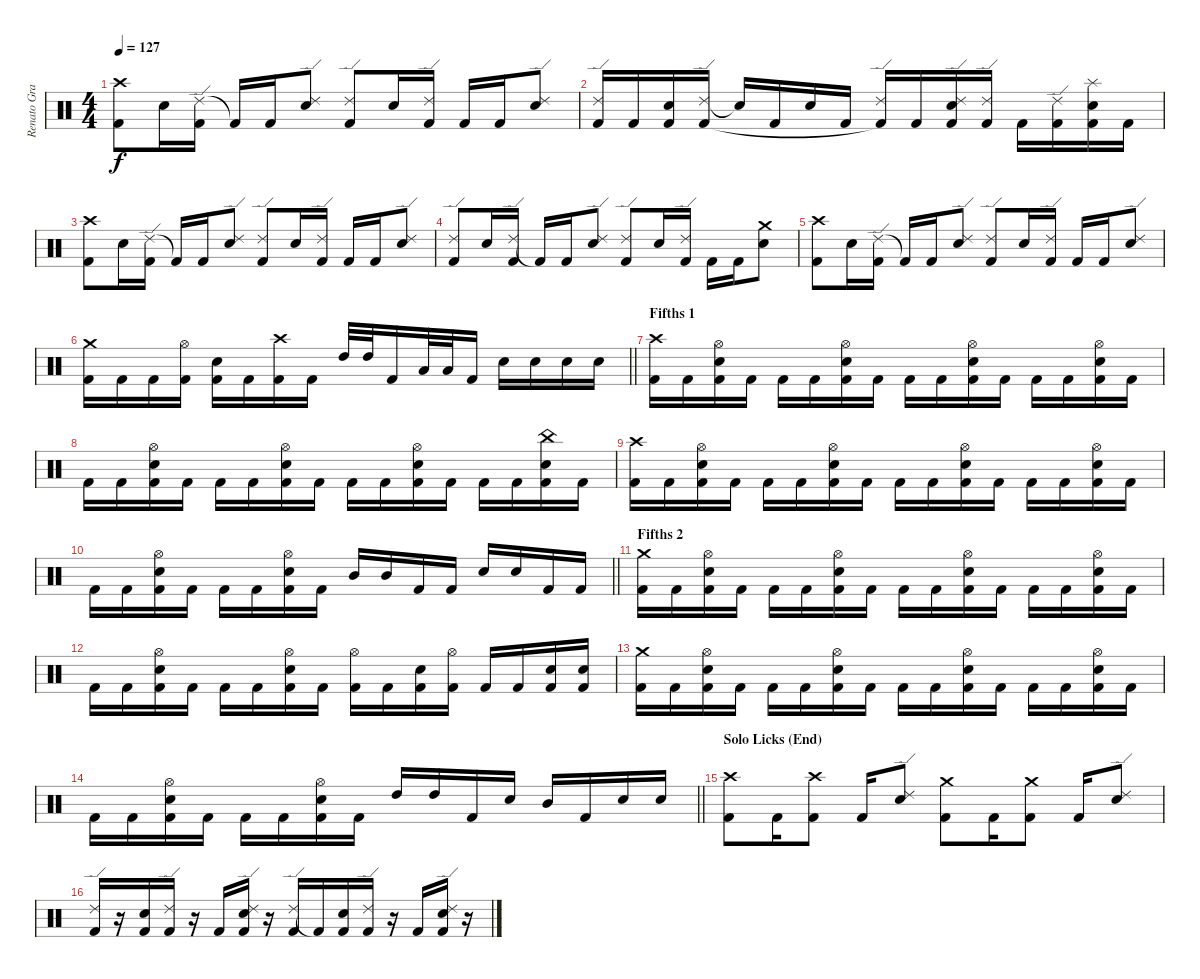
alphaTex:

\track ("Renato Graccia (drums)" "Renato Gra") {instrument percussion}
\staff {score}
\articulation defaults
\ts (4 4)
\tempo 127
\clef neutral
\ks c
("Crash high (hit)" "Kick (hit) 2").8{dy f} "Snare (hit) 2".16 ("Ride (edge) 2" "Kick (hit) 2").16 "Kick (hit) 2"{t}.16 "Kick (hit) 2".16 ("Ride (edge) 2" "Snare (hit) 2").8 ("Ride (edge) 2" "Kick (hit) 2").8 "Snare (hit) 2".16 ("Ride (edge) 2" "Kick (hit) 2").16 "Kick (hit) 2".16 "Kick (hit) 2".16 ("Ride (edge) 2" "Snare (hit) 2").8 |
("Ride (edge) 2" "Kick (hit) 2").16 "Kick (hit) 2".16 ("Snare (hit) 2" "Kick (hit) 2").16 ("Ride (edge) 2" "Kick (hit) 2").16 "Snare (hit)"{t}.16 "Kick (hit) 2".16 "Snare (hit) 2".16 "Kick (hit) 2".16 ("Ride (edge) 2" "Kick (hit) 2"{t}).16 "Kick (hit) 2".16 ("Ride (edge) 2" "Snare (hit) 2" "Kick (hit) 2").16 ("Ride (edge) 2" "Kick (hit) 2").16 "Kick (hit) 2".16 ("Ride (edge) 2" "Kick (hit) 2").16 ("Splash (hit)" "Snare (hit) 2" "Kick (hit) 2").16 "Kick (hit) 2".16 |
("Crash high (hit)" "Kick (hit) 2").8 "Snare (hit) 2".16 ("Ride (edge) 2" "Kick (hit) 2").16 "Kick (hit) 2"{t}.16 "Kick (hit) 2".16 ("Ride (edge) 2" "Snare (hit) 2").8 ("Ride (edge) 2" "Kick (hit) 2").8 "Snare (hit) 2".16 ("Ride (edge) 2" "Kick (hit) 2").16 "Kick (hit) 2".16 "Kick (hit) 2".16 ("Ride (edge) 2" "Snare (hit) 2").8 |
("Ride (edge) 2" "Kick (hit) 2").8 "Snare (hit) 2".16 ("Ride (edge) 2" "Kick (hit) 2").16 "Kick (hit) 2"{t}.16 "Kick (hit) 2".16 ("Ride (edge) 2" "Snare (hit) 2").8 ("Ride (edge) 2" "Kick (hit) 2").8 "Snare (hit) 2".16 ("Ride (edge) 2" "Kick (hit) 2").16 "Kick (hit) 2".16 "Kick (hit) 2".16 ("Crash medium (hit)" "Snare (hit) 2").8 |
("Crash high (hit)" "Kick (hit) 2").8 "Snare (hit) 2".16 ("Ride (edge) 2" "Kick (hit) 2").16 "Kick (hit) 2"{t}.16 "Kick (hit) 2".16 ("Ride (edge) 2" "Snare (hit) 2").8 ("Ride (edge) 2" "Kick (hit) 2").8 "Snare (hit) 2".16 ("Ride (edge) 2" "Kick (hit) 2").16 "Kick (hit) 2".16 "Kick (hit) 2".16 ("Ride (edge) 2" "Snare (hit) 2").8 |
\barLineRight lightlight
("Crash medium (hit)" "Kick (hit) 2").16 "Kick (hit) 2".16 "Kick (hit) 2".16 ("Hi-Hat (open)" "Kick (hit) 2").16 ("Snare (hit) 2" "Kick (hit) 2").16 "Kick (hit) 2".16 ("Crash high (hit)" "Kick (hit) 2").16 "Kick (hit) 2".16 "High Tom (hit)".32 "High Tom (hit)".32 "Kick (hit) 2".16 "Low Tom (hit)".32 "Low Tom (hit)".32 "Kick (hit) 2".16 "Snare (hit) 2".16 "Snare (hit) 2".16 "Snare (hit) 2".16 "Snare (hit) 2".16 |
\section ("" "Fifths 1")
("Crash high (hit)" "Kick (hit) 2").16 "Kick (hit) 2".16 ("Hi-Hat (open)" "Snare (hit) 2" "Kick (hit) 2").16 "Kick (hit) 2".16 "Kick (hit) 2".16 "Kick (hit) 2".16 ("Hi-Hat (open)" "Snare (hit) 2" "Kick (hit) 2").16 "Kick (hit) 2".16 "Kick (hit) 2".16 "Kick (hit) 2".16 ("Hi-Hat (open)" "Snare (hit) 2" "Kick (hit) 2").16 "Kick (hit) 2".16 "Kick (hit) 2".16 "Kick (hit) 2".16 ("Hi-Hat (open)" "Snare (hit) 2" "Kick (hit) 2").16 "Kick (hit) 2".16 |
"Kick (hit) 2".16 "Kick (hit) 2".16 ("Hi-Hat (open)" "Snare (hit) 2" "Kick (hit) 2").16 "Kick (hit) 2".16 "Kick (hit) 2".16 "Kick (hit) 2".16 ("Hi-Hat (open)" "Snare (hit) 2" "Kick (hit) 2").16 "Kick (hit) 2".16 "Kick (hit) 2".16 "Kick (hit) 2".16 ("Hi-Hat (open)" "Snare (hit) 2" "Kick (hit) 2").16 "Kick (hit) 2".16 "Kick (hit) 2".16 "Kick (hit) 2".16 ("China (hit)" "Snare (hit) 2" "Kick (hit) 2").16 "Kick (hit) 2".16 |
("Crash high (hit)" "Kick (hit) 2").16 "Kick (hit) 2".16 ("Hi-Hat (open)" "Snare (hit) 2" "Kick (hit) 2").16 "Kick (hit) 2".16 "Kick (hit) 2".16 "Kick (hit) 2".16 ("Hi-Hat (open)" "Snare (hit) 2" "Kick (hit) 2").16 "Kick (hit) 2".16 "Kick (hit) 2".16 "Kick (hit) 2".16 ("Hi-Hat (open)" "Snare (hit) 2" "Kick (hit) 2").16 "Kick (hit) 2".16 "Kick (hit) 2".16 "Kick (hit) 2".16 ("Hi-Hat (open)" "Snare (hit) 2" "Kick (hit) 2").16 "Kick (hit) 2".16 |
\barLineRight lightlight "Kick (hit) 2".16 "Kick (hit) 2".16
("Hi-Hat (open)" "Snare (hit) 2" "Kick (hit) 2").16 "Kick (hit) 2".16 "Kick (hit) 2".16 "Kick (hit) 2".16 ("Hi-Hat (open)" "Snare (hit) 2" "Kick (hit) 2").16 "Kick (hit) 2".16 "Mid Tom (hit)".16 "Mid Tom (hit)".16 "Kick (hit) 2".16 "Kick (hit) 2".16 "Snare (hit) 2".16 "Snare (hit) 2".16 "Kick (hit) 2".16 "Kick (hit) 2".16 |
\section ("" "Fifths 2")
("Crash medium (hit)" "Kick (hit) 2").16 "Kick (hit) 2".16 ("Hi-Hat (open)" "Snare (hit) 2" "Kick (hit) 2").16 "Kick (hit) 2".16 "Kick (hit) 2".16 "Kick (hit) 2".16 ("Hi-Hat (open)" "Snare (hit) 2" "Kick (hit) 2").16 "Kick (hit) 2".16 "Kick (hit) 2".16 "Kick (hit) 2".16 ("Hi-Hat (open)" "Snare (hit) 2" "Kick (hit) 2").16 "Kick (hit) 2".16 "Kick (hit) 2".16 "Kick (hit) 2".16 ("Hi-Hat (open)" "Snare (hit) 2" "Kick (hit) 2").16 "Kick (hit) 2".16 |
"Kick (hit) 2".16 "Kick (hit) 2".16 ("Hi-Hat (open)" "Snare (hit) 2" "Kick (hit) 2").16 "Kick (hit) 2".16 "Kick (hit) 2".16 "Kick (hit) 2".16 ("Hi-Hat (open)" "Snare (hit) 2" "Kick (hit) 2").16 "Kick (hit) 2".16 ("Hi-Hat (open)" "Kick (hit) 2").16 "Kick (hit) 2".16 ("Snare (hit) 2" "Kick (hit) 2").16 ("Hi-Hat (open)" "Kick (hit) 2").16 "Kick (hit) 2".16 "Kick (hit) 2".16 ("Snare (hit) 2" "Kick (hit) 2").16 ("Snare (hit) 2" "Kick (hit) 2").16 |
("Crash medium (hit)" "Kick (hit) 2").16 "Kick (hit) 2".16 ("Hi-Hat (open)" "Snare (hit) 2" "Kick (hit) 2").16 "Kick (hit) 2".16 "Kick (hit) 2".16 "Kick (hit) 2".16 ("Hi-Hat (open)" "Snare (hit) 2" "Kick (hit) 2").16 "Kick (hit) 2".16 "Kick (hit) 2".16 "Kick (hit) 2".16 ("Hi-Hat (open)" "Snare (hit) 2" "Kick (hit) 2").16 "Kick (hit) 2".16 "Kick (hit) 2".16 "Kick (hit) 2".16 ("Hi-Hat (open)" "Snare (hit) 2" "Kick (hit) 2").16 "Kick (hit) 2".16 |
\barLineRight lightlight "Kick (hit) 2".16 "Kick (hit) 2".16
("Hi-Hat (open)" "Snare (hit) 2" "Kick (hit) 2").16 "Kick (hit) 2".16 "Kick (hit) 2".16 "Kick (hit) 2".16 ("Hi-Hat (open)" "Snare (hit) 2" "Kick (hit) 2").16 "Kick (hit) 2".16 "High Tom (hit)".16 "High Tom (hit)".16 "Kick (hit) 2".16 "Snare (hit) 2".16 "Mid Tom (hit)".16 "Kick (hit) 2".16 "Snare (hit) 2".16 "Snare (hit) 2".16 |
\section ("" "Solo Licks (End)")
("Crash high (hit)" "Kick (hit) 2").8 "Kick (hit) 2".16 ("Crash high (hit)" "Kick (hit) 2").8 "Kick (hit) 2".16 ("Ride (edge) 2" "Snare (hit) 2").8 ("Crash medium (hit)" "Kick (hit) 2").8 "Kick (hit) 2".16 ("Crash medium (hit)" "Kick (hit) 2").8 "Kick (hit) 2".16 ("Ride (edge) 2" "Snare (hit) 2").8 |
("Ride (edge) 2" "Kick (hit) 2").16 r.16 ("Snare (hit) 2" "Kick (hit) 2").16 ("Ride (edge) 2" "Kick (hit) 2").16 r.16 "Kick (hit) 2".16 ("Ride (edge) 2" "Snare (hit) 2" "Kick (hit) 2").16 r.16 ("Ride (edge) 2" "Kick (hit) 2").16 "Kick (hit) 2"{t}.16 ("Snare (hit) 2" "Kick (hit) 2").16 ("Ride (edge) 2" "Kick (hit) 2").16 r.16 "Kick (hit) 2".16 ("Ride (edge) 2" "Snare (hit) 2" "Kick (hit) 2").16 r.16
